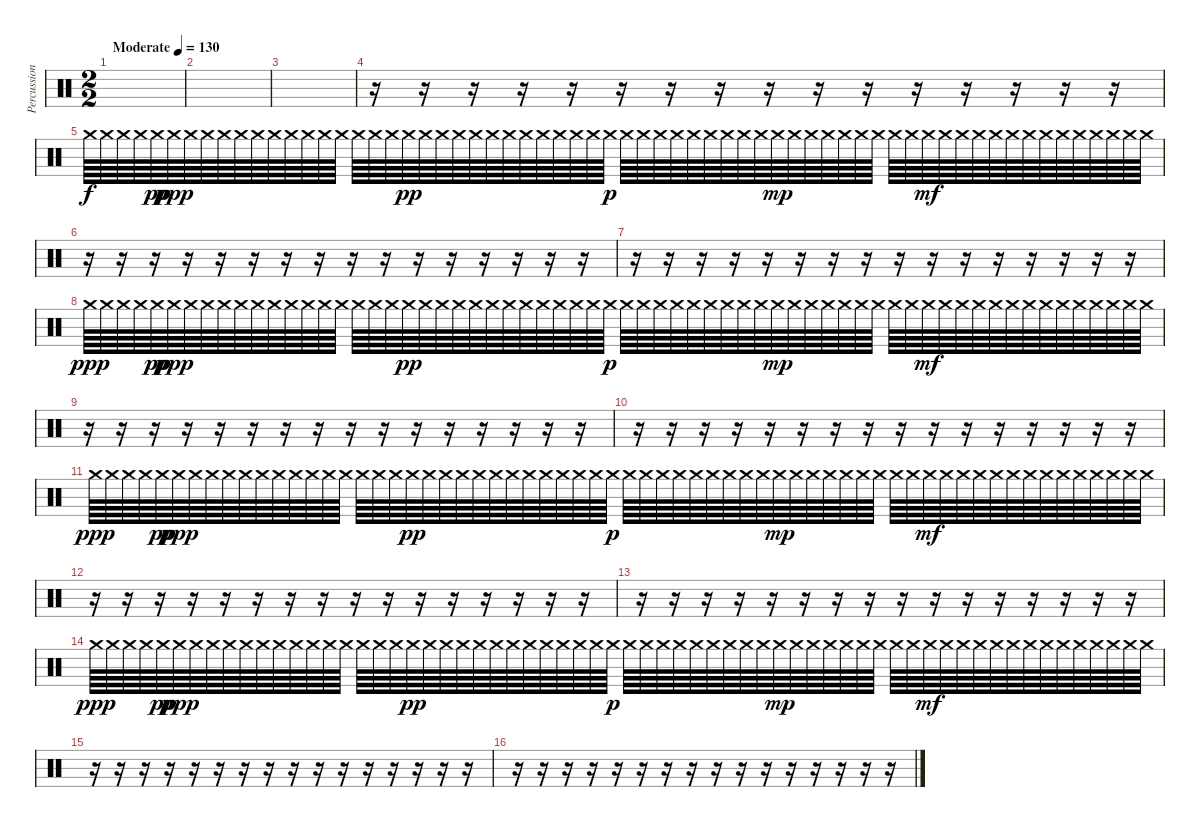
\track ("Percussion" "Percussion") {instrument percussion}
\staff {score}
\articulation defaults
\ts (2 2)
\tempo (130 "Moderate")
\clef neutral
\ks c
|
|
|
r.16 r.16 r.16 r.16 r.16 r.16 r.16 r.16 r.16 r.16 r.16 r.16 r.16 r.16 r.16 r.16 |
"Crash medium (hit)".64 "Crash medium (hit)".64 "Crash medium (hit)".64 "Crash medium (hit)".64 "Crash medium (hit)".64{dy pp} "Crash medium (hit)".64{dy ppp} "Crash medium (hit)".64 "Crash medium (hit)".64 "Crash medium (hit)".64 "Crash medium (hit)".64 "Crash medium (hit)".64 "Crash medium (hit)".64 "Crash medium (hit)".64 "Crash medium (hit)".64 "Crash medium (hit)".64 "Crash medium (hit)".64 "Crash medium (hit)".64 "Crash medium (hit)".64 "Crash medium (hit)".64 "Crash medium (hit)".64{dy pp} "Crash medium (hit)".64 "Crash medium (hit)".64 "Crash medium (hit)".64 "Crash medium (hit)".64 "Crash medium (hit)".64 "Crash medium (hit)".64 "Crash medium (hit)".64 "Crash medium (hit)".64 "Crash medium (hit)".64 "Crash medium (hit)".64 "Crash medium (hit)".64 "Crash medium (hit)".64{dy p} "Crash medium (hit)".64 "Crash medium (hit)".64 "Crash medium (hit)".64 "Crash medium (hit)".64 "Crash medium (hit)".64 "Crash medium (hit)".64 "Crash medium (hit)".64 "Crash medium (hit)".64 "Crash medium (hit)".64 "Crash medium (hit)".64{dy mp} "Crash medium (hit)".64 "Crash medium (hit)".64 "Crash medium (hit)".64 "Crash medium (hit)".64 "Crash medium (hit)".64 "Crash medium (hit)".64 "Crash medium (hit)".64 "Crash medium (hit)".64 "Crash medium (hit)".64{dy mf} "Crash medium (hit)".64 "Crash medium (hit)".64 "Crash medium (hit)".64 "Crash medium (hit)".64 "Crash medium (hit)".64 "Crash medium (hit)".64 "Crash medium (hit)".64 "Crash medium (hit)".64 "Crash medium (hit)".64 "Crash medium (hit)".64 "Crash medium (hit)".64 "Crash medium (hit)".64 "Crash medium (hit)".64 |
r.16 r.16 r.16 r.16 r.16 r.16 r.16 r.16 r.16 r.16 r.16 r.16 r.16 r.16 r.16 r.16 |
r.16 r.16 r.16 r.16 r.16 r.16 r.16 r.16 r.16 r.16 r.16 r.16 r.16 r.16 r.16 r.16 |
"Crash medium (hit)".64{dy ppp} "Crash medium (hit)".64 "Crash medium (hit)".64 "Crash medium (hit)".64 "Crash medium (hit)".64{dy pp} "Crash medium (hit)".64{dy ppp} "Crash medium (hit)".64 "Crash medium (hit)".64 "Crash medium (hit)".64 "Crash medium (hit)".64 "Crash medium (hit)".64 "Crash medium (hit)".64 "Crash medium (hit)".64 "Crash medium (hit)".64 "Crash medium (hit)".64 "Crash medium (hit)".64 "Crash medium (hit)".64 "Crash medium (hit)".64 "Crash medium (hit)".64 "Crash medium (hit)".64{dy pp} "Crash medium (hit)".64 "Crash medium (hit)".64 "Crash medium (hit)".64 "Crash medium (hit)".64 "Crash medium (hit)".64 "Crash medium (hit)".64 "Crash medium (hit)".64 "Crash medium (hit)".64 "Crash medium (hit)".64 "Crash medium (hit)".64 "Crash medium (hit)".64 "Crash medium (hit)".64{dy p} "Crash medium (hit)".64 "Crash medium (hit)".64 "Crash medium (hit)".64 "Crash medium (hit)".64 "Crash medium (hit)".64 "Crash medium (hit)".64 "Crash medium (hit)".64 "Crash medium (hit)".64 "Crash medium (hit)".64 "Crash medium (hit)".64{dy mp} "Crash medium (hit)".64 "Crash medium (hit)".64 "Crash medium (hit)".64 "Crash medium (hit)".64 "Crash medium (hit)".64 "Crash medium (hit)".64 "Crash medium (hit)".64 "Crash medium (hit)".64 "Crash medium (hit)".64{dy mf} "Crash medium (hit)".64 "Crash medium (hit)".64 "Crash medium (hit)".64 "Crash medium (hit)".64 "Crash medium (hit)".64 "Crash medium (hit)".64 "Crash medium (hit)".64 "Crash medium (hit)".64 "Crash medium (hit)".64 "Crash medium (hit)".64 "Crash medium (hit)".64 "Crash medium (hit)".64 "Crash medium (hit)".64 |
r.16 r.16 r.16 r.16 r.16 r.16 r.16 r.16 r.16 r.16 r.16 r.16 r.16 r.16 r.16 r.16 |
r.16 r.16 r.16 r.16 r.16 r.16 r.16 r.16 r.16 r.16 r.16 r.16 r.16 r.16 r.16 r.16 |
"Crash medium (hit)".64{dy ppp} "Crash medium (hit)".64 "Crash medium (hit)".64 "Crash medium (hit)".64 "Crash medium (hit)".64{dy pp} "Crash medium (hit)".64{dy ppp} "Crash medium (hit)".64 "Crash medium (hit)".64 "Crash medium (hit)".64 "Crash medium (hit)".64 "Crash medium (hit)".64 "Crash medium (hit)".64 "Crash medium (hit)".64 "Crash medium (hit)".64 "Crash medium (hit)".64 "Crash medium (hit)".64 "Crash medium (hit)".64 "Crash medium (hit)".64 "Crash medium (hit)".64 "Crash medium (hit)".64{dy pp} "Crash medium (hit)".64 "Crash medium (hit)".64 "Crash medium (hit)".64 "Crash medium (hit)".64 "Crash medium (hit)".64 "Crash medium (hit)".64 "Crash medium (hit)".64 "Crash medium (hit)".64 "Crash medium (hit)".64 "Crash medium (hit)".64 "Crash medium (hit)".64 "Crash medium (hit)".64{dy p} "Crash medium (hit)".64 "Crash medium (hit)".64 "Crash medium (hit)".64 "Crash medium (hit)".64 "Crash medium (hit)".64 "Crash medium (hit)".64 "Crash medium (hit)".64 "Crash medium (hit)".64 "Crash medium (hit)".64 "Crash medium (hit)".64{dy mp} "Crash medium (hit)".64 "Crash medium (hit)".64 "Crash medium (hit)".64 "Crash medium (hit)".64 "Crash medium (hit)".64 "Crash medium (hit)".64 "Crash medium (hit)".64 "Crash medium (hit)".64 "Crash medium (hit)".64{dy mf} "Crash medium (hit)".64 "Crash medium (hit)".64 "Crash medium (hit)".64 "Crash medium (hit)".64 "Crash medium (hit)".64 "Crash medium (hit)".64 "Crash medium (hit)".64 "Crash medium (hit)".64 "Crash medium (hit)".64 "Crash medium (hit)".64 "Crash medium (hit)".64 "Crash medium (hit)".64 "Crash medium (hit)".64 |
r.16 r.16 r.16 r.16 r.16 r.16 r.16 r.16 r.16 r.16 r.16 r.16 r.16 r.16 r.16 r.16 |
r.16 r.16 r.16 r.16 r.16 r.16 r.16 r.16 r.16 r.16 r.16 r.16 r.16 r.16 r.16 r.16 |
"Crash medium (hit)".64{dy ppp} "Crash medium (hit)".64 "Crash medium (hit)".64 "Crash medium (hit)".64 "Crash medium (hit)".64{dy pp} "Crash medium (hit)".64{dy ppp} "Crash medium (hit)".64 "Crash medium (hit)".64 "Crash medium (hit)".64 "Crash medium (hit)".64 "Crash medium (hit)".64 "Crash medium (hit)".64 "Crash medium (hit)".64 "Crash medium (hit)".64 "Crash medium (hit)".64 "Crash medium (hit)".64 "Crash medium (hit)".64 "Crash medium (hit)".64 "Crash medium (hit)".64 "Crash medium (hit)".64{dy pp} "Crash medium (hit)".64 "Crash medium (hit)".64 "Crash medium (hit)".64 "Crash medium (hit)".64 "Crash medium (hit)".64 "Crash medium (hit)".64 "Crash medium (hit)".64 "Crash medium (hit)".64 "Crash medium (hit)".64 "Crash medium (hit)".64 "Crash medium (hit)".64 "Crash medium (hit)".64{dy p} "Crash medium (hit)".64 "Crash medium (hit)".64 "Crash medium (hit)".64 "Crash medium (hit)".64 "Crash medium (hit)".64 "Crash medium (hit)".64 "Crash medium (hit)".64 "Crash medium (hit)".64 "Crash medium (hit)".64 "Crash medium (hit)".64{dy mp} "Crash medium (hit)".64 "Crash medium (hit)".64 "Crash medium (hit)".64 "Crash medium (hit)".64 "Crash medium (hit)".64 "Crash medium (hit)".64 "Crash medium (hit)".64 "Crash medium (hit)".64 "Crash medium (hit)".64{dy mf} "Crash medium (hit)".64 "Crash medium (hit)".64 "Crash medium (hit)".64 "Crash medium (hit)".64 "Crash medium (hit)".64 "Crash medium (hit)".64 "Crash medium (hit)".64 "Crash medium (hit)".64 "Crash medium (hit)".64 "Crash medium (hit)".64 "Crash medium (hit)".64 "Crash medium (hit)".64 "Crash medium (hit)".64 |
r.16 r.16 r.16 r.16 r.16 r.16 r.16 r.16 r.16 r.16 r.16 r.16 r.16 r.16 r.16 r.16 |
r.16 r.16 r.16 r.16 r.16 r.16 r.16 r.16 r.16 r.16 r.16 r.16 r.16 r.16 r.16 r.16
